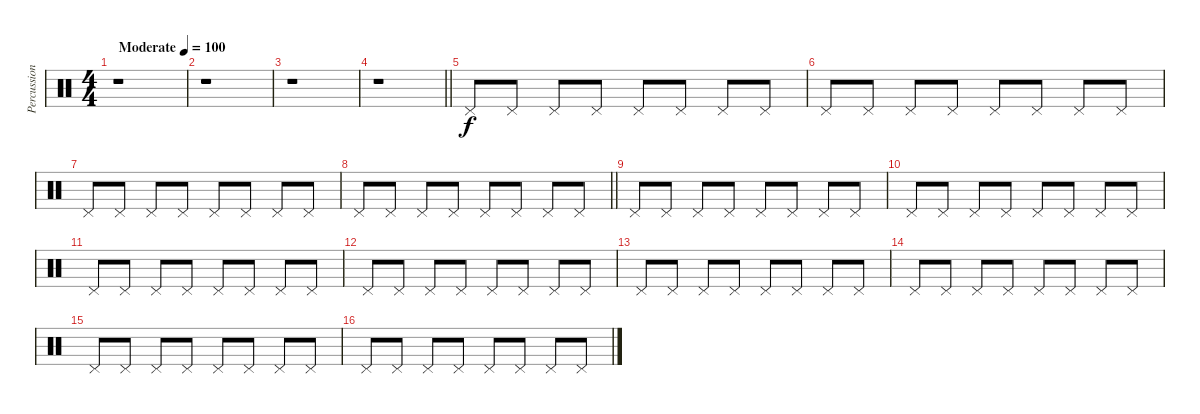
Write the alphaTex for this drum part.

\track ("Percussions" "Percussion") {instrument percussion}
\staff {score}
\articulation defaults
\ts (4 4)
\tempo (100 "Moderate")
\clef neutral
\ks c
r.1{dy f} |
r.1 |
r.1 |
\barLineRight lightlight
r.1 |
"Pedal Hi-Hat (hit)".8 "Pedal Hi-Hat (hit)".8 "Pedal Hi-Hat (hit)".8 "Pedal Hi-Hat (hit)".8 "Pedal Hi-Hat (hit)".8 "Pedal Hi-Hat (hit)".8 "Pedal Hi-Hat (hit)".8 "Pedal Hi-Hat (hit)".8 |
"Pedal Hi-Hat (hit)".8 "Pedal Hi-Hat (hit)".8 "Pedal Hi-Hat (hit)".8 "Pedal Hi-Hat (hit)".8 "Pedal Hi-Hat (hit)".8 "Pedal Hi-Hat (hit)".8 "Pedal Hi-Hat (hit)".8 "Pedal Hi-Hat (hit)".8 |
"Pedal Hi-Hat (hit)".8 "Pedal Hi-Hat (hit)".8 "Pedal Hi-Hat (hit)".8 "Pedal Hi-Hat (hit)".8 "Pedal Hi-Hat (hit)".8 "Pedal Hi-Hat (hit)".8 "Pedal Hi-Hat (hit)".8 "Pedal Hi-Hat (hit)".8 |
\barLineRight lightlight "Pedal Hi-Hat (hit)".8 "Pedal Hi-Hat (hit)".8 "Pedal Hi-Hat (hit)".8 "Pedal Hi-Hat (hit)".8 "Pedal Hi-Hat (hit)".8 "Pedal Hi-Hat (hit)".8 "Pedal Hi-Hat (hit)".8 "Pedal Hi-Hat (hit)".8
|
"Pedal Hi-Hat (hit)".8 "Pedal Hi-Hat (hit)".8 "Pedal Hi-Hat (hit)".8 "Pedal Hi-Hat (hit)".8 "Pedal Hi-Hat (hit)".8 "Pedal Hi-Hat (hit)".8 "Pedal Hi-Hat (hit)".8 "Pedal Hi-Hat (hit)".8 |
"Pedal Hi-Hat (hit)".8 "Pedal Hi-Hat (hit)".8 "Pedal Hi-Hat (hit)".8 "Pedal Hi-Hat (hit)".8 "Pedal Hi-Hat (hit)".8 "Pedal Hi-Hat (hit)".8 "Pedal Hi-Hat (hit)".8 "Pedal Hi-Hat (hit)".8 |
"Pedal Hi-Hat (hit)".8 "Pedal Hi-Hat (hit)".8 "Pedal Hi-Hat (hit)".8 "Pedal Hi-Hat (hit)".8 "Pedal Hi-Hat (hit)".8 "Pedal Hi-Hat (hit)".8 "Pedal Hi-Hat (hit)".8 "Pedal Hi-Hat (hit)".8 |
"Pedal Hi-Hat (hit)".8 "Pedal Hi-Hat (hit)".8 "Pedal Hi-Hat (hit)".8 "Pedal Hi-Hat (hit)".8 "Pedal Hi-Hat (hit)".8 "Pedal Hi-Hat (hit)".8 "Pedal Hi-Hat (hit)".8 "Pedal Hi-Hat (hit)".8 |
"Pedal Hi-Hat (hit)".8 "Pedal Hi-Hat (hit)".8 "Pedal Hi-Hat (hit)".8 "Pedal Hi-Hat (hit)".8 "Pedal Hi-Hat (hit)".8 "Pedal Hi-Hat (hit)".8 "Pedal Hi-Hat (hit)".8 "Pedal Hi-Hat (hit)".8 |
"Pedal Hi-Hat (hit)".8 "Pedal Hi-Hat (hit)".8 "Pedal Hi-Hat (hit)".8 "Pedal Hi-Hat (hit)".8 "Pedal Hi-Hat (hit)".8 "Pedal Hi-Hat (hit)".8 "Pedal Hi-Hat (hit)".8 "Pedal Hi-Hat (hit)".8 |
"Pedal Hi-Hat (hit)".8 "Pedal Hi-Hat (hit)".8 "Pedal Hi-Hat (hit)".8 "Pedal Hi-Hat (hit)".8 "Pedal Hi-Hat (hit)".8 "Pedal Hi-Hat (hit)".8 "Pedal Hi-Hat (hit)".8 "Pedal Hi-Hat (hit)".8 |
"Pedal Hi-Hat (hit)".8 "Pedal Hi-Hat (hit)".8 "Pedal Hi-Hat (hit)".8 "Pedal Hi-Hat (hit)".8 "Pedal Hi-Hat (hit)".8 "Pedal Hi-Hat (hit)".8 "Pedal Hi-Hat (hit)".8 "Pedal Hi-Hat (hit)".8
